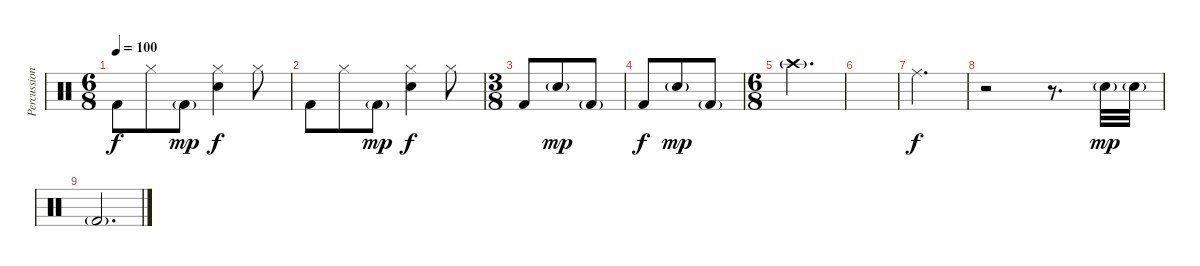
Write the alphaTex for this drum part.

\track ("Percussion" "Percussion") {instrument percussion}
\staff {score}
\articulation defaults
\ts (6 8)
\tempo 100
\clef neutral
\ks c "Kick (hit) 2".8{dy f} "Hi-Hat (closed)".8 "Kick (hit) 2"{g}.8{dy mp}
("Hi-Hat (closed)" "Snare (hit) 2").4{dy f} "Hi-Hat (closed)".8 |
"Kick (hit) 2".8 "Hi-Hat (closed)".8 "Kick (hit) 2"{g}.8{dy mp} ("Hi-Hat (closed)" "Snare (hit) 2").4{dy f} "Hi-Hat (closed)".8 |
\ts (3 8)
"Kick (hit) 2".8 "Snare (hit) 2"{g}.8{dy mp} "Kick (hit) 2"{g}.8 |
"Kick (hit) 2".8{dy f} "Snare (hit) 2"{g}.8{dy mp} "Kick (hit) 2"{g}.8 |
\ts (6 8)
"Crash high (hit)"{g}.2{d} |
|
"Ride (middle)".2{d dy f} |
r.2 r.8{d} "Snare (hit) 2"{g}.32{dy mp} "Snare (hit) 2"{g}.32 |
"Kick (hit) 2"{g}.2{d}
